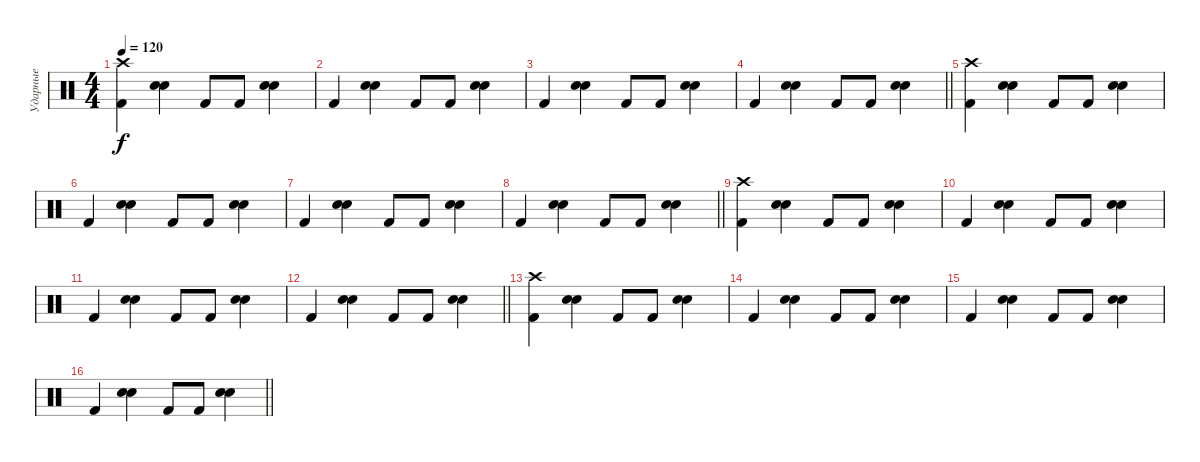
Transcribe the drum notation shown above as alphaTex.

\track ("Ударные" "Ударные") {instrument percussion}
\staff {score}
\articulation defaults
\ts (4 4)
\tempo 120
\clef neutral
\ks c
("Kick (hit) 2" "Crash high (hit)").4{dy f} ("Snare (hit) 2" "Electric Snare (hit)").4 "Kick (hit) 2".8 "Kick (hit) 2".8 ("Snare (hit) 2" "Electric Snare (hit)").4 |
"Kick (hit) 2".4 ("Snare (hit) 2" "Electric Snare (hit)").4 "Kick (hit) 2".8 "Kick (hit) 2".8 ("Snare (hit) 2" "Electric Snare (hit)").4 |
"Kick (hit) 2".4 ("Snare (hit) 2" "Electric Snare (hit)").4 "Kick (hit) 2".8 "Kick (hit) 2".8 ("Snare (hit) 2" "Electric Snare (hit)").4 |
\barLineRight lightlight "Kick (hit) 2".4
("Snare (hit) 2" "Electric Snare (hit)").4 "Kick (hit) 2".8 "Kick (hit) 2".8 ("Snare (hit) 2" "Electric Snare (hit)").4 |
("Kick (hit) 2" "Crash high (hit)").4 ("Snare (hit) 2" "Electric Snare (hit)").4 "Kick (hit) 2".8 "Kick (hit) 2".8 ("Snare (hit) 2" "Electric Snare (hit)").4 |
"Kick (hit) 2".4 ("Snare (hit) 2" "Electric Snare (hit)").4 "Kick (hit) 2".8 "Kick (hit) 2".8 ("Snare (hit) 2" "Electric Snare (hit)").4 |
"Kick (hit) 2".4 ("Snare (hit) 2" "Electric Snare (hit)").4 "Kick (hit) 2".8 "Kick (hit) 2".8 ("Snare (hit) 2" "Electric Snare (hit)").4 |
\barLineRight lightlight "Kick (hit) 2".4
("Snare (hit) 2" "Electric Snare (hit)").4 "Kick (hit) 2".8 "Kick (hit) 2".8 ("Snare (hit) 2" "Electric Snare (hit)").4 |
("Kick (hit) 2" "Crash high (hit)").4 ("Snare (hit) 2" "Electric Snare (hit)").4 "Kick (hit) 2".8 "Kick (hit) 2".8 ("Snare (hit) 2" "Electric Snare (hit)").4 |
"Kick (hit) 2".4 ("Snare (hit) 2" "Electric Snare (hit)").4 "Kick (hit) 2".8 "Kick (hit) 2".8 ("Snare (hit) 2" "Electric Snare (hit)").4 |
"Kick (hit) 2".4 ("Snare (hit) 2" "Electric Snare (hit)").4 "Kick (hit) 2".8 "Kick (hit) 2".8 ("Snare (hit) 2" "Electric Snare (hit)").4 |
\barLineRight lightlight "Kick (hit) 2".4
("Snare (hit) 2" "Electric Snare (hit)").4 "Kick (hit) 2".8 "Kick (hit) 2".8 ("Snare (hit) 2" "Electric Snare (hit)").4 |
("Kick (hit) 2" "Crash high (hit)").4 ("Snare (hit) 2" "Electric Snare (hit)").4 "Kick (hit) 2".8 "Kick (hit) 2".8 ("Snare (hit) 2" "Electric Snare (hit)").4 |
"Kick (hit) 2".4 ("Snare (hit) 2" "Electric Snare (hit)").4 "Kick (hit) 2".8 "Kick (hit) 2".8 ("Snare (hit) 2" "Electric Snare (hit)").4 |
"Kick (hit) 2".4 ("Snare (hit) 2" "Electric Snare (hit)").4 "Kick (hit) 2".8 "Kick (hit) 2".8 ("Snare (hit) 2" "Electric Snare (hit)").4 |
\barLineRight lightlight "Kick (hit) 2".4
("Snare (hit) 2" "Electric Snare (hit)").4 "Kick (hit) 2".8 "Kick (hit) 2".8 ("Snare (hit) 2" "Electric Snare (hit)").4
